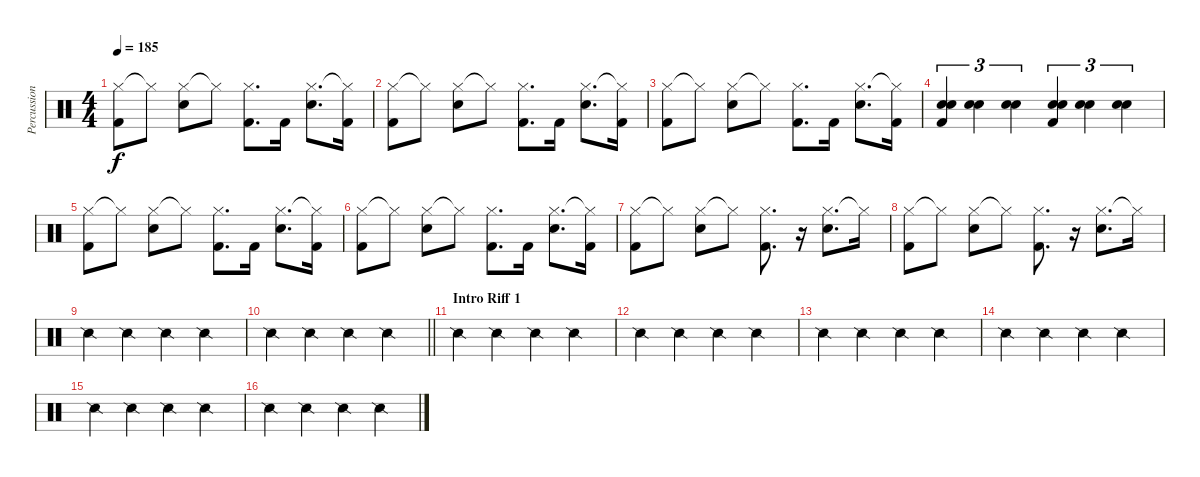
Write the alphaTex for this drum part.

\track ("Percussion" "Percussion") {instrument percussion}
\staff {score}
\articulation defaults
\ts (4 4)
\tempo 185
\clef neutral
\ks c
("Hi-Hat (closed)" "Kick (hit) 2").8{dy f} "Hi-Hat (closed)"{t}.8 ("Hi-Hat (closed)" "Snare (hit) 2").8 "Hi-Hat (closed)"{t}.8 ("Hi-Hat (closed)" "Kick (hit) 2").8{d} "Kick (hit) 2".16 ("Hi-Hat (closed)" "Snare (hit) 2").8{d} ("Hi-Hat (closed)"{t} "Kick (hit) 2").16 |
("Hi-Hat (closed)" "Kick (hit) 2").8 "Hi-Hat (closed)"{t}.8 ("Hi-Hat (closed)" "Snare (hit) 2").8 "Hi-Hat (closed)"{t}.8 ("Hi-Hat (closed)" "Kick (hit) 2").8{d} "Kick (hit) 2".16 ("Hi-Hat (closed)" "Snare (hit) 2").8{d} ("Hi-Hat (closed)"{t} "Kick (hit) 2").16 |
("Hi-Hat (closed)" "Kick (hit) 2").8 "Hi-Hat (closed)"{t}.8 ("Hi-Hat (closed)" "Snare (hit) 2").8 "Hi-Hat (closed)"{t}.8 ("Hi-Hat (closed)" "Kick (hit) 2").8{d} "Kick (hit) 2".16 ("Hi-Hat (closed)" "Snare (hit) 2").8{d} ("Hi-Hat (closed)"{t} "Kick (hit) 2").16 |
("Snare (hit) 2" "Snare (hit) 2" "Kick (hit) 2").4{tu (3 2)} ("Snare (hit) 2" "Snare (hit) 2").4{tu (3 2)} ("Snare (hit) 2" "Snare (hit) 2").4{tu (3 2)} ("Snare (hit) 2" "Snare (hit) 2" "Kick (hit) 2").4{tu (3 2)} ("Snare (hit) 2" "Snare (hit) 2").4{tu (3 2)} ("Snare (hit) 2" "Snare (hit) 2").4{tu (3 2)} |
("Hi-Hat (closed)" "Kick (hit) 2").8 "Hi-Hat (closed)"{t}.8 ("Hi-Hat (closed)" "Snare (hit) 2").8 "Hi-Hat (closed)"{t}.8 ("Hi-Hat (closed)" "Kick (hit) 2").8{d} "Kick (hit) 2".16 ("Hi-Hat (closed)" "Snare (hit) 2").8{d} ("Hi-Hat (closed)"{t} "Kick (hit) 2").16 |
("Hi-Hat (closed)" "Kick (hit) 2").8 "Hi-Hat (closed)"{t}.8 ("Hi-Hat (closed)" "Snare (hit) 2").8 "Hi-Hat (closed)"{t}.8 ("Hi-Hat (closed)" "Kick (hit) 2").8{d} "Kick (hit) 2".16 ("Hi-Hat (closed)" "Snare (hit) 2").8{d} ("Hi-Hat (closed)"{t} "Kick (hit) 2").16 |
("Hi-Hat (closed)" "Kick (hit) 2").8 "Hi-Hat (closed)"{t}.8 ("Hi-Hat (closed)" "Snare (hit) 2").8 "Hi-Hat (closed)"{t}.8 ("Hi-Hat (closed)" "Kick (hit) 2").8{d} r.16 ("Hi-Hat (closed)" "Snare (hit) 2").8{d} "Hi-Hat (closed)"{t}.16 |
("Hi-Hat (closed)" "Kick (hit) 2").8 "Hi-Hat (closed)"{t}.8 ("Hi-Hat (closed)" "Snare (hit) 2").8 "Hi-Hat (closed)"{t}.8 ("Hi-Hat (closed)" "Kick (hit) 2").8{d} r.16 ("Hi-Hat (closed)" "Snare (hit) 2").8{d} "Hi-Hat (closed)"{t}.16 |
"Snare (side stick) 2".4 "Snare (side stick) 2".4 "Snare (side stick) 2".4 "Snare (side stick) 2".4 |
\barLineRight lightlight "Snare (side stick) 2".4 "Snare (side stick) 2".4 "Snare (side stick) 2".4 "Snare (side stick) 2".4
|
\section ("" "Intro Riff 1")
"Snare (side stick) 2".4 "Snare (side stick) 2".4 "Snare (side stick) 2".4 "Snare (side stick) 2".4 |
"Snare (side stick) 2".4 "Snare (side stick) 2".4 "Snare (side stick) 2".4 "Snare (side stick) 2".4 |
"Snare (side stick) 2".4 "Snare (side stick) 2".4 "Snare (side stick) 2".4 "Snare (side stick) 2".4 |
"Snare (side stick) 2".4 "Snare (side stick) 2".4 "Snare (side stick) 2".4 "Snare (side stick) 2".4 |
"Snare (side stick) 2".4 "Snare (side stick) 2".4 "Snare (side stick) 2".4 "Snare (side stick) 2".4 |
"Snare (side stick) 2".4 "Snare (side stick) 2".4 "Snare (side stick) 2".4 "Snare (side stick) 2".4
